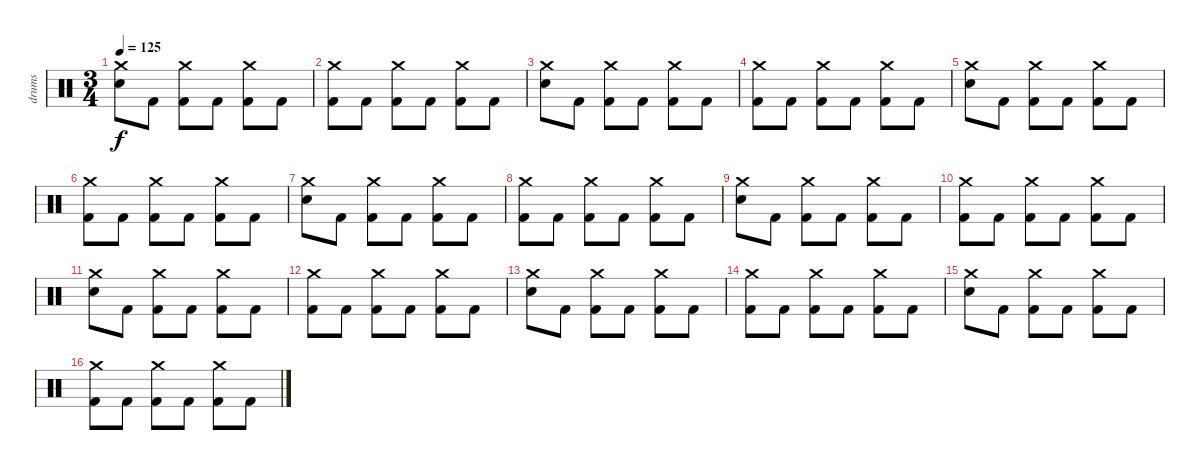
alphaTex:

\track ("drums" "drums") {instrument percussion}
\staff {score}
\articulation defaults
\ts (3 4)
\tempo 125
\clef neutral
\ks c
("Crash medium (hit)" "Electric Snare (hit)").8{dy f} "Kick (hit) 2".8 ("Crash medium (hit)" "Kick (hit) 2").8 "Kick (hit) 2".8 ("Crash medium (hit)" "Kick (hit) 2").8 "Kick (hit) 2".8 |
("Crash medium (hit)" "Kick (hit) 2").8 "Kick (hit) 2".8 ("Crash medium (hit)" "Kick (hit) 2").8 "Kick (hit) 2".8 ("Crash medium (hit)" "Kick (hit) 2").8 "Kick (hit) 2".8 |
("Crash medium (hit)" "Electric Snare (hit)").8 "Kick (hit) 2".8 ("Crash medium (hit)" "Kick (hit) 2").8 "Kick (hit) 2".8 ("Crash medium (hit)" "Kick (hit) 2").8 "Kick (hit) 2".8 |
("Crash medium (hit)" "Kick (hit) 2").8 "Kick (hit) 2".8 ("Crash medium (hit)" "Kick (hit) 2").8 "Kick (hit) 2".8 ("Crash medium (hit)" "Kick (hit) 2").8 "Kick (hit) 2".8 |
("Crash medium (hit)" "Electric Snare (hit)").8 "Kick (hit) 2".8 ("Crash medium (hit)" "Kick (hit) 2").8 "Kick (hit) 2".8 ("Crash medium (hit)" "Kick (hit) 2").8 "Kick (hit) 2".8 |
("Crash medium (hit)" "Kick (hit) 2").8 "Kick (hit) 2".8 ("Crash medium (hit)" "Kick (hit) 2").8 "Kick (hit) 2".8 ("Crash medium (hit)" "Kick (hit) 2").8 "Kick (hit) 2".8 |
("Crash medium (hit)" "Electric Snare (hit)").8 "Kick (hit) 2".8 ("Crash medium (hit)" "Kick (hit) 2").8 "Kick (hit) 2".8 ("Crash medium (hit)" "Kick (hit) 2").8 "Kick (hit) 2".8 |
("Crash medium (hit)" "Kick (hit) 2").8 "Kick (hit) 2".8 ("Crash medium (hit)" "Kick (hit) 2").8 "Kick (hit) 2".8 ("Crash medium (hit)" "Kick (hit) 2").8 "Kick (hit) 2".8 |
("Crash medium (hit)" "Electric Snare (hit)").8 "Kick (hit) 2".8 ("Crash medium (hit)" "Kick (hit) 2").8 "Kick (hit) 2".8 ("Crash medium (hit)" "Kick (hit) 2").8 "Kick (hit) 2".8 |
("Crash medium (hit)" "Kick (hit) 2").8 "Kick (hit) 2".8 ("Crash medium (hit)" "Kick (hit) 2").8 "Kick (hit) 2".8 ("Crash medium (hit)" "Kick (hit) 2").8 "Kick (hit) 2".8 |
("Crash medium (hit)" "Electric Snare (hit)").8 "Kick (hit) 2".8 ("Crash medium (hit)" "Kick (hit) 2").8 "Kick (hit) 2".8 ("Crash medium (hit)" "Kick (hit) 2").8 "Kick (hit) 2".8 |
("Crash medium (hit)" "Kick (hit) 2").8 "Kick (hit) 2".8 ("Crash medium (hit)" "Kick (hit) 2").8 "Kick (hit) 2".8 ("Crash medium (hit)" "Kick (hit) 2").8 "Kick (hit) 2".8 |
("Crash medium (hit)" "Electric Snare (hit)").8 "Kick (hit) 2".8 ("Crash medium (hit)" "Kick (hit) 2").8 "Kick (hit) 2".8 ("Crash medium (hit)" "Kick (hit) 2").8 "Kick (hit) 2".8 |
("Crash medium (hit)" "Kick (hit) 2").8 "Kick (hit) 2".8 ("Crash medium (hit)" "Kick (hit) 2").8 "Kick (hit) 2".8 ("Crash medium (hit)" "Kick (hit) 2").8 "Kick (hit) 2".8 |
("Crash medium (hit)" "Electric Snare (hit)").8 "Kick (hit) 2".8 ("Crash medium (hit)" "Kick (hit) 2").8 "Kick (hit) 2".8 ("Crash medium (hit)" "Kick (hit) 2").8 "Kick (hit) 2".8 |
("Crash medium (hit)" "Kick (hit) 2").8 "Kick (hit) 2".8 ("Crash medium (hit)" "Kick (hit) 2").8 "Kick (hit) 2".8 ("Crash medium (hit)" "Kick (hit) 2").8 "Kick (hit) 2".8
